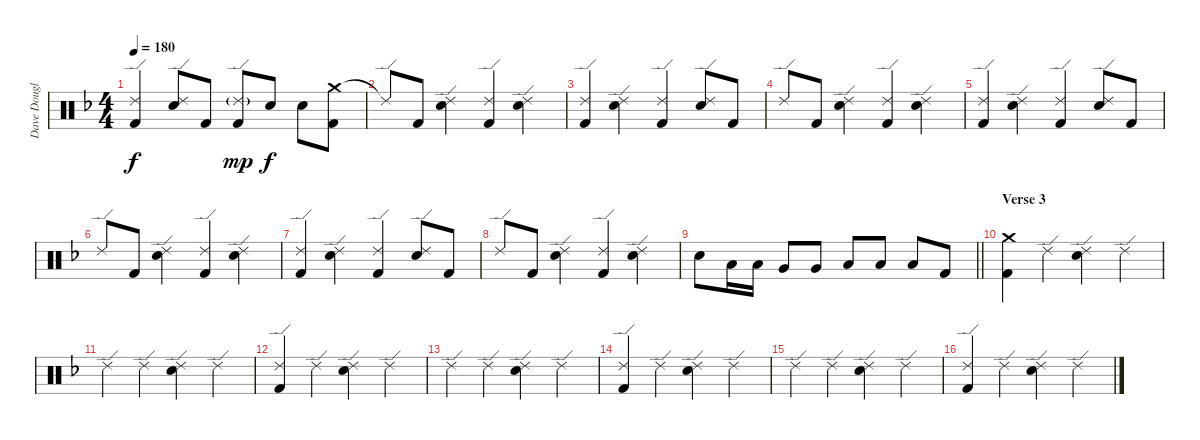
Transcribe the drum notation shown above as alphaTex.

\track ("Dave Douglas (Drum)" "Dave Dougl") {instrument percussion}
\staff {score}
\articulation defaults
\ts (4 4)
\tempo 180
\clef neutral
\ks dminor
("Ride (edge) 2" "Kick (hit) 2").4{dy f} ("Ride (edge) 2" "Snare (hit) 2").8 "Kick (hit) 2".8 ("Ride (edge) 2"{g} "Kick (hit) 2").8{dy mp} "Snare (hit) 2".8{dy f} "Snare (hit) 2".8 ("Crash medium (hit)" "Kick (hit) 2").8 |
"Ride (edge) 2"{t}.8 "Kick (hit) 2".8 ("Ride (edge) 2" "Snare (hit) 2").4 ("Ride (edge) 2" "Kick (hit) 2").4 ("Ride (edge) 2" "Snare (hit) 2").4 |
("Ride (edge) 2" "Kick (hit) 2").4 ("Ride (edge) 2" "Snare (hit) 2").4 ("Ride (edge) 2" "Kick (hit) 2").4 ("Ride (edge) 2" "Snare (hit) 2").8 "Kick (hit) 2".8 |
"Ride (edge) 2".8 "Kick (hit) 2".8 ("Ride (edge) 2" "Snare (hit) 2").4 ("Ride (edge) 2" "Kick (hit) 2").4 ("Ride (edge) 2" "Snare (hit) 2").4 |
("Ride (edge) 2" "Kick (hit) 2").4 ("Ride (edge) 2" "Snare (hit) 2").4 ("Ride (edge) 2" "Kick (hit) 2").4 ("Ride (edge) 2" "Snare (hit) 2").8 "Kick (hit) 2".8 |
"Ride (edge) 2".8 "Kick (hit) 2".8 ("Ride (edge) 2" "Snare (hit) 2").4 ("Ride (edge) 2" "Kick (hit) 2").4 ("Ride (edge) 2" "Snare (hit) 2").4 |
("Ride (edge) 2" "Kick (hit) 2").4 ("Ride (edge) 2" "Snare (hit) 2").4 ("Ride (edge) 2" "Kick (hit) 2").4 ("Ride (edge) 2" "Snare (hit) 2").8 "Kick (hit) 2".8 |
"Ride (edge) 2".8 "Kick (hit) 2".8 ("Ride (edge) 2" "Snare (hit) 2").4 ("Ride (edge) 2" "Kick (hit) 2").4 ("Ride (edge) 2" "Snare (hit) 2").4 |
\barLineRight lightlight "Snare (hit) 2".8 "Low Tom (hit)".16 "Low Tom (hit)".16 "Very Low Tom (hit)".8 "Very Low Tom (hit)".8 "Low Floor Tom (hit)".8 "Low Floor Tom (hit)".8 "Low Floor Tom (hit)".8 "Kick (hit) 2".8
|
\section ("" "Verse 3")
("Crash medium (hit)" "Kick (hit) 2").4 "Ride (edge) 2".4 ("Ride (edge) 2" "Snare (hit) 2").4 "Ride (edge) 2".4 |
"Ride (edge) 2".4 "Ride (edge) 2".4 ("Ride (edge) 2" "Snare (hit) 2").4 "Ride (edge) 2".4 |
("Ride (edge) 2" "Kick (hit) 2").4 "Ride (edge) 2".4 ("Ride (edge) 2" "Snare (hit) 2").4 "Ride (edge) 2".4 |
"Ride (edge) 2".4 "Ride (edge) 2".4 ("Ride (edge) 2" "Snare (hit) 2").4 "Ride (edge) 2".4 |
("Ride (edge) 2" "Kick (hit) 2").4 "Ride (edge) 2".4 ("Ride (edge) 2" "Snare (hit) 2").4 "Ride (edge) 2".4 |
"Ride (edge) 2".4 "Ride (edge) 2".4 ("Ride (edge) 2" "Snare (hit) 2").4 "Ride (edge) 2".4 |
("Ride (edge) 2" "Kick (hit) 2").4 "Ride (edge) 2".4 ("Ride (edge) 2" "Snare (hit) 2").4 "Ride (edge) 2".4
